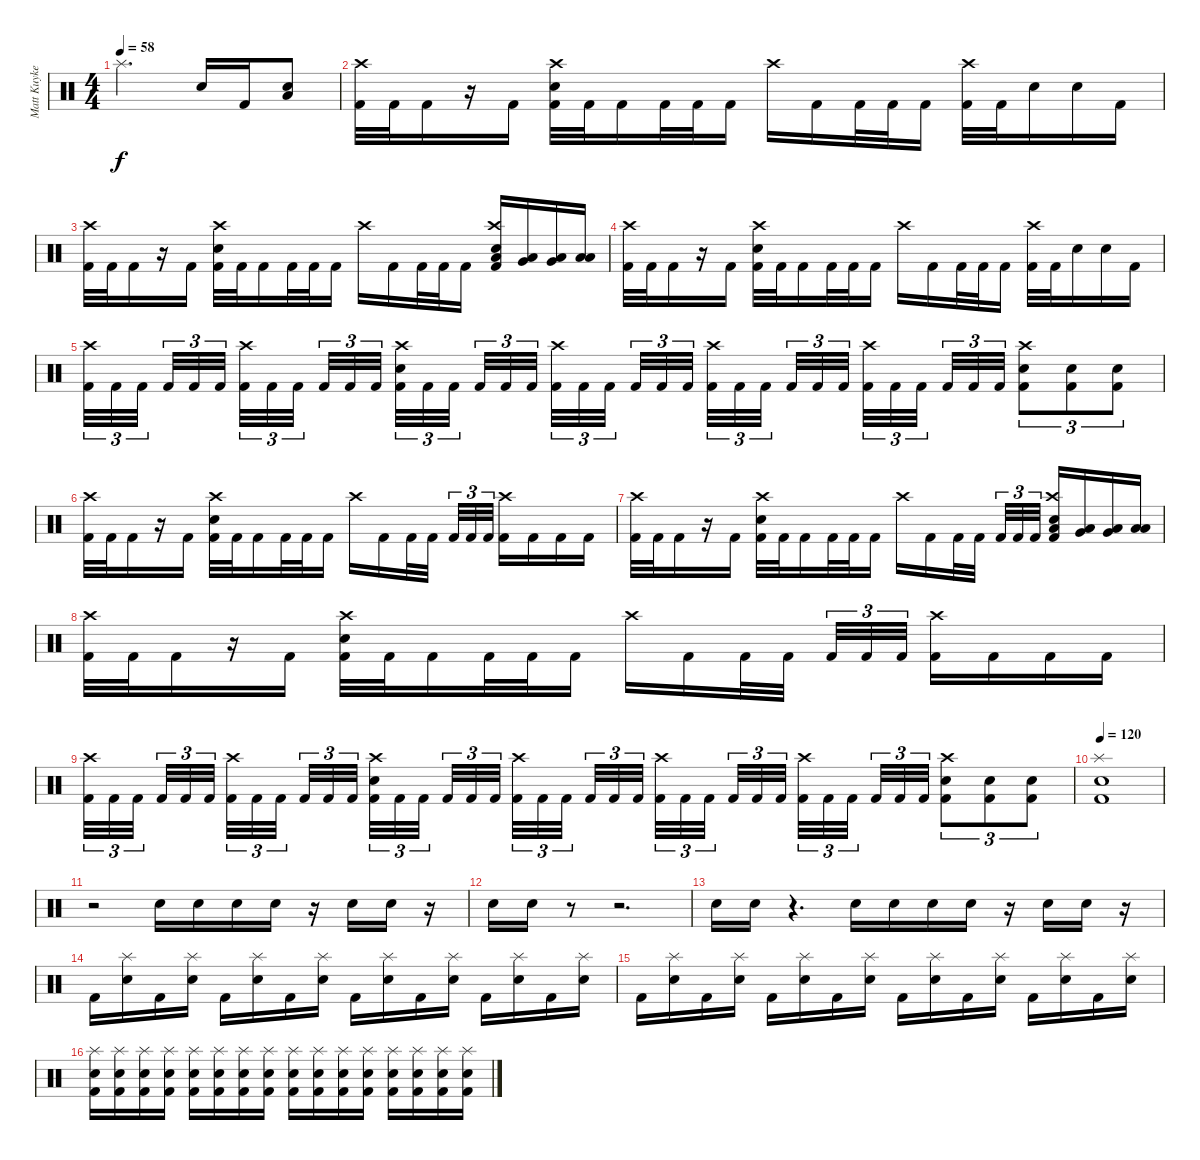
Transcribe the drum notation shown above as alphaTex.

\track ("Matt Kuykendall (Drums)" "Matt Kuyke") {instrument percussion}
\staff {score}
\articulation defaults
\ts (4 4)
\tempo 58
\clef neutral
\ks c "Splash (hit)".2{d dy f} "Snare (hit) 2".16 "Kick (hit) 2".16
("Low Floor Tom (hit)" "Snare (hit) 2").8 |
("Crash high (hit)" "Kick (hit) 2").32 "Kick (hit) 2".32 "Kick (hit) 2".16 r.16 "Kick (hit) 2".16 ("Crash high (hit)" "Snare (hit) 2" "Kick (hit) 2").32 "Kick (hit) 2".32 "Kick (hit) 2".16 "Kick (hit) 2".32 "Kick (hit) 2".32 "Kick (hit) 2".16 "Crash high (hit)".16 "Kick (hit) 2".16 "Kick (hit) 2".32 "Kick (hit) 2".32 "Kick (hit) 2".16 ("Crash high (hit)" "Kick (hit) 2").32 "Kick (hit) 2".32 "Snare (hit) 2".16 "Snare (hit) 2".16 "Kick (hit) 2".16 |
("Crash high (hit)" "Kick (hit) 2").32 "Kick (hit) 2".32 "Kick (hit) 2".16 r.16 "Kick (hit) 2".16 ("Crash high (hit)" "Snare (hit) 2" "Kick (hit) 2").32 "Kick (hit) 2".32 "Kick (hit) 2".16 "Kick (hit) 2".32 "Kick (hit) 2".32 "Kick (hit) 2".16 "Crash high (hit)".16 "Kick (hit) 2".16 "Kick (hit) 2".32 "Kick (hit) 2".32 "Kick (hit) 2".16 ("Crash high (hit)" "Low Tom (hit)" "Snare (hit) 2" "Kick (hit) 2").16 ("Low Tom (hit)" "Very Low Tom (hit)").16 ("Very Low Tom (hit)" "Low Floor Tom (hit)").16 ("Low Floor Tom (hit)" "Low Floor Tom (hit)").16 |
("Crash high (hit)" "Kick (hit) 2").32 "Kick (hit) 2".32 "Kick (hit) 2".16 r.16 "Kick (hit) 2".16 ("Crash high (hit)" "Snare (hit) 2" "Kick (hit) 2").32 "Kick (hit) 2".32 "Kick (hit) 2".16 "Kick (hit) 2".32 "Kick (hit) 2".32 "Kick (hit) 2".16 "Crash high (hit)".16 "Kick (hit) 2".16 "Kick (hit) 2".32 "Kick (hit) 2".32 "Kick (hit) 2".16 ("Crash high (hit)" "Kick (hit) 2").32 "Kick (hit) 2".32 "Snare (hit) 2".16 "Snare (hit) 2".16 "Kick (hit) 2".16 |
("Crash high (hit)" "Kick (hit) 2").32{tu (3 2)} "Kick (hit) 2".32{tu (3 2)} "Kick (hit) 2".32{tu (3 2) beam splitsecondary} "Kick (hit) 2".32{tu (3 2)} "Kick (hit) 2".32{tu (3 2)} "Kick (hit) 2".32{tu (3 2) beam splitsecondary} ("Crash high (hit)" "Kick (hit) 2").32{tu (3 2)} "Kick (hit) 2".32{tu (3 2)} "Kick (hit) 2".32{tu (3 2) beam splitsecondary} "Kick (hit) 2".32{tu (3 2)} "Kick (hit) 2".32{tu (3 2)} "Kick (hit) 2".32{tu (3 2)} ("Crash high (hit)" "Snare (hit) 2" "Kick (hit) 2").32{tu (3 2)} "Kick (hit) 2".32{tu (3 2)} "Kick (hit) 2".32{tu (3 2) beam splitsecondary} "Kick (hit) 2".32{tu (3 2)} "Kick (hit) 2".32{tu (3 2)} "Kick (hit) 2".32{tu (3 2) beam splitsecondary} ("Crash high (hit)" "Kick (hit) 2").32{tu (3 2)} "Kick (hit) 2".32{tu (3 2)} "Kick (hit) 2".32{tu (3 2) beam splitsecondary} "Kick (hit) 2".32{tu (3 2)} "Kick (hit) 2".32{tu (3 2)} "Kick (hit) 2".32{tu (3 2)} ("Crash high (hit)" "Kick (hit) 2").32{tu (3 2)} "Kick (hit) 2".32{tu (3 2)} "Kick (hit) 2".32{tu (3 2) beam splitsecondary} "Kick (hit) 2".32{tu (3 2)} "Kick (hit) 2".32{tu (3 2)} "Kick (hit) 2".32{tu (3 2) beam splitsecondary} ("Crash high (hit)" "Kick (hit) 2").32{tu (3 2)} "Kick (hit) 2".32{tu (3 2)} "Kick (hit) 2".32{tu (3 2) beam splitsecondary} "Kick (hit) 2".32{tu (3 2)} "Kick (hit) 2".32{tu (3 2)} "Kick (hit) 2".32{tu (3 2)} ("Crash high (hit)" "Snare (hit) 2" "Kick (hit) 2").8{tu (3 2)} ("Snare (hit) 2" "Kick (hit) 2").8{tu (3 2)} ("Snare (hit) 2" "Kick (hit) 2").8{tu (3 2)} |
("Crash high (hit)" "Kick (hit) 2").32 "Kick (hit) 2".32 "Kick (hit) 2".16 r.16 "Kick (hit) 2".16 ("Crash high (hit)" "Snare (hit) 2" "Kick (hit) 2").32 "Kick (hit) 2".32 "Kick (hit) 2".16 "Kick (hit) 2".32 "Kick (hit) 2".32 "Kick (hit) 2".16 "Crash high (hit)".16 "Kick (hit) 2".16 "Kick (hit) 2".32 "Kick (hit) 2".32{beam splitsecondary} "Kick (hit) 2".32{tu (3 2)} "Kick (hit) 2".32{tu (3 2)} "Kick (hit) 2".32{tu (3 2)} ("Crash high (hit)" "Kick (hit) 2").16 "Kick (hit) 2".16 "Kick (hit) 2".16 "Kick (hit) 2".16 |
("Crash high (hit)" "Kick (hit) 2").32 "Kick (hit) 2".32 "Kick (hit) 2".16 r.16 "Kick (hit) 2".16 ("Crash high (hit)" "Snare (hit) 2" "Kick (hit) 2").32 "Kick (hit) 2".32 "Kick (hit) 2".16 "Kick (hit) 2".32 "Kick (hit) 2".32 "Kick (hit) 2".16 "Crash high (hit)".16 "Kick (hit) 2".16 "Kick (hit) 2".32 "Kick (hit) 2".32{beam splitsecondary} "Kick (hit) 2".32{tu (3 2)} "Kick (hit) 2".32{tu (3 2)} "Kick (hit) 2".32{tu (3 2)} ("Crash high (hit)" "Low Tom (hit)" "Snare (hit) 2" "Kick (hit) 2").16 ("Low Tom (hit)" "Very Low Tom (hit)").16 ("Very Low Tom (hit)" "Low Floor Tom (hit)").16 ("Low Floor Tom (hit)" "Low Floor Tom (hit)").16 |
("Crash high (hit)" "Kick (hit) 2").32 "Kick (hit) 2".32 "Kick (hit) 2".16 r.16 "Kick (hit) 2".16 ("Crash high (hit)" "Snare (hit) 2" "Kick (hit) 2").32 "Kick (hit) 2".32 "Kick (hit) 2".16 "Kick (hit) 2".32 "Kick (hit) 2".32 "Kick (hit) 2".16 "Crash high (hit)".16 "Kick (hit) 2".16 "Kick (hit) 2".32 "Kick (hit) 2".32{beam splitsecondary} "Kick (hit) 2".32{tu (3 2)} "Kick (hit) 2".32{tu (3 2)} "Kick (hit) 2".32{tu (3 2)} ("Crash high (hit)" "Kick (hit) 2").16 "Kick (hit) 2".16 "Kick (hit) 2".16 "Kick (hit) 2".16 |
("Crash high (hit)" "Kick (hit) 2").32{tu (3 2)} "Kick (hit) 2".32{tu (3 2)} "Kick (hit) 2".32{tu (3 2) beam splitsecondary} "Kick (hit) 2".32{tu (3 2)} "Kick (hit) 2".32{tu (3 2)} "Kick (hit) 2".32{tu (3 2) beam splitsecondary} ("Crash high (hit)" "Kick (hit) 2").32{tu (3 2)} "Kick (hit) 2".32{tu (3 2)} "Kick (hit) 2".32{tu (3 2) beam splitsecondary} "Kick (hit) 2".32{tu (3 2)} "Kick (hit) 2".32{tu (3 2)} "Kick (hit) 2".32{tu (3 2)} ("Crash high (hit)" "Snare (hit) 2" "Kick (hit) 2").32{tu (3 2)} "Kick (hit) 2".32{tu (3 2)} "Kick (hit) 2".32{tu (3 2) beam splitsecondary} "Kick (hit) 2".32{tu (3 2)} "Kick (hit) 2".32{tu (3 2)} "Kick (hit) 2".32{tu (3 2) beam splitsecondary} ("Crash high (hit)" "Kick (hit) 2").32{tu (3 2)} "Kick (hit) 2".32{tu (3 2)} "Kick (hit) 2".32{tu (3 2) beam splitsecondary} "Kick (hit) 2".32{tu (3 2)} "Kick (hit) 2".32{tu (3 2)} "Kick (hit) 2".32{tu (3 2)} ("Crash high (hit)" "Kick (hit) 2").32{tu (3 2)} "Kick (hit) 2".32{tu (3 2)} "Kick (hit) 2".32{tu (3 2) beam splitsecondary} "Kick (hit) 2".32{tu (3 2)} "Kick (hit) 2".32{tu (3 2)} "Kick (hit) 2".32{tu (3 2) beam splitsecondary} ("Crash high (hit)" "Kick (hit) 2").32{tu (3 2)} "Kick (hit) 2".32{tu (3 2)} "Kick (hit) 2".32{tu (3 2) beam splitsecondary} "Kick (hit) 2".32{tu (3 2)} "Kick (hit) 2".32{tu (3 2)} "Kick (hit) 2".32{tu (3 2)} ("Crash high (hit)" "Snare (hit) 2" "Kick (hit) 2").8{tu (3 2)} ("Snare (hit) 2" "Kick (hit) 2").8{tu (3 2)} ("Snare (hit) 2" "Kick (hit) 2").8{tu (3 2)} |
\tempo 120
("Splash (hit)" "Snare (hit) 2" "Kick (hit) 2").1 |
r.2 "Snare (hit) 2".16 "Snare (hit) 2".16 "Snare (hit) 2".16 "Snare (hit) 2".16 r.16 "Snare (hit) 2".16 "Snare (hit) 2".16 r.16 |
"Snare (hit) 2".16 "Snare (hit) 2".16 r.8 r.2{d} |
"Snare (hit) 2".16 "Snare (hit) 2".16 r.4{d} "Snare (hit) 2".16 "Snare (hit) 2".16 "Snare (hit) 2".16 "Snare (hit) 2".16 r.16 "Snare (hit) 2".16 "Snare (hit) 2".16 r.16 |
"Kick (hit) 2".16 ("Splash (hit)" "Snare (hit) 2").16 "Kick (hit) 2".16 ("Splash (hit)" "Snare (hit) 2").16 "Kick (hit) 2".16 ("Splash (hit)" "Snare (hit) 2").16 "Kick (hit) 2".16 ("Splash (hit)" "Snare (hit) 2").16 "Kick (hit) 2".16 ("Splash (hit)" "Snare (hit) 2").16 "Kick (hit) 2".16 ("Splash (hit)" "Snare (hit) 2").16 "Kick (hit) 2".16 ("Splash (hit)" "Snare (hit) 2").16 "Kick (hit) 2".16 ("Splash (hit)" "Snare (hit) 2").16 |
"Kick (hit) 2".16 ("Splash (hit)" "Snare (hit) 2").16 "Kick (hit) 2".16 ("Splash (hit)" "Snare (hit) 2").16 "Kick (hit) 2".16 ("Splash (hit)" "Snare (hit) 2").16 "Kick (hit) 2".16 ("Splash (hit)" "Snare (hit) 2").16 "Kick (hit) 2".16 ("Splash (hit)" "Snare (hit) 2").16 "Kick (hit) 2".16 ("Splash (hit)" "Snare (hit) 2").16 "Kick (hit) 2".16 ("Splash (hit)" "Snare (hit) 2").16 "Kick (hit) 2".16 ("Splash (hit)" "Snare (hit) 2").16 |
("Splash (hit)" "Snare (hit) 2" "Kick (hit) 2").16 ("Splash (hit)" "Snare (hit) 2" "Kick (hit) 2").16 ("Splash (hit)" "Snare (hit) 2" "Kick (hit) 2").16 ("Splash (hit)" "Snare (hit) 2" "Kick (hit) 2").16 ("Splash (hit)" "Snare (hit) 2" "Kick (hit) 2").16 ("Splash (hit)" "Snare (hit) 2" "Kick (hit) 2").16 ("Splash (hit)" "Snare (hit) 2" "Kick (hit) 2").16 ("Splash (hit)" "Snare (hit) 2" "Kick (hit) 2").16 ("Splash (hit)" "Snare (hit) 2" "Kick (hit) 2").16 ("Splash (hit)" "Snare (hit) 2" "Kick (hit) 2").16 ("Splash (hit)" "Snare (hit) 2" "Kick (hit) 2").16 ("Splash (hit)" "Snare (hit) 2" "Kick (hit) 2").16 ("Splash (hit)" "Snare (hit) 2" "Kick (hit) 2").16 ("Splash (hit)" "Snare (hit) 2" "Kick (hit) 2").16 ("Splash (hit)" "Snare (hit) 2" "Kick (hit) 2").16 ("Splash (hit)" "Snare (hit) 2" "Kick (hit) 2").16
